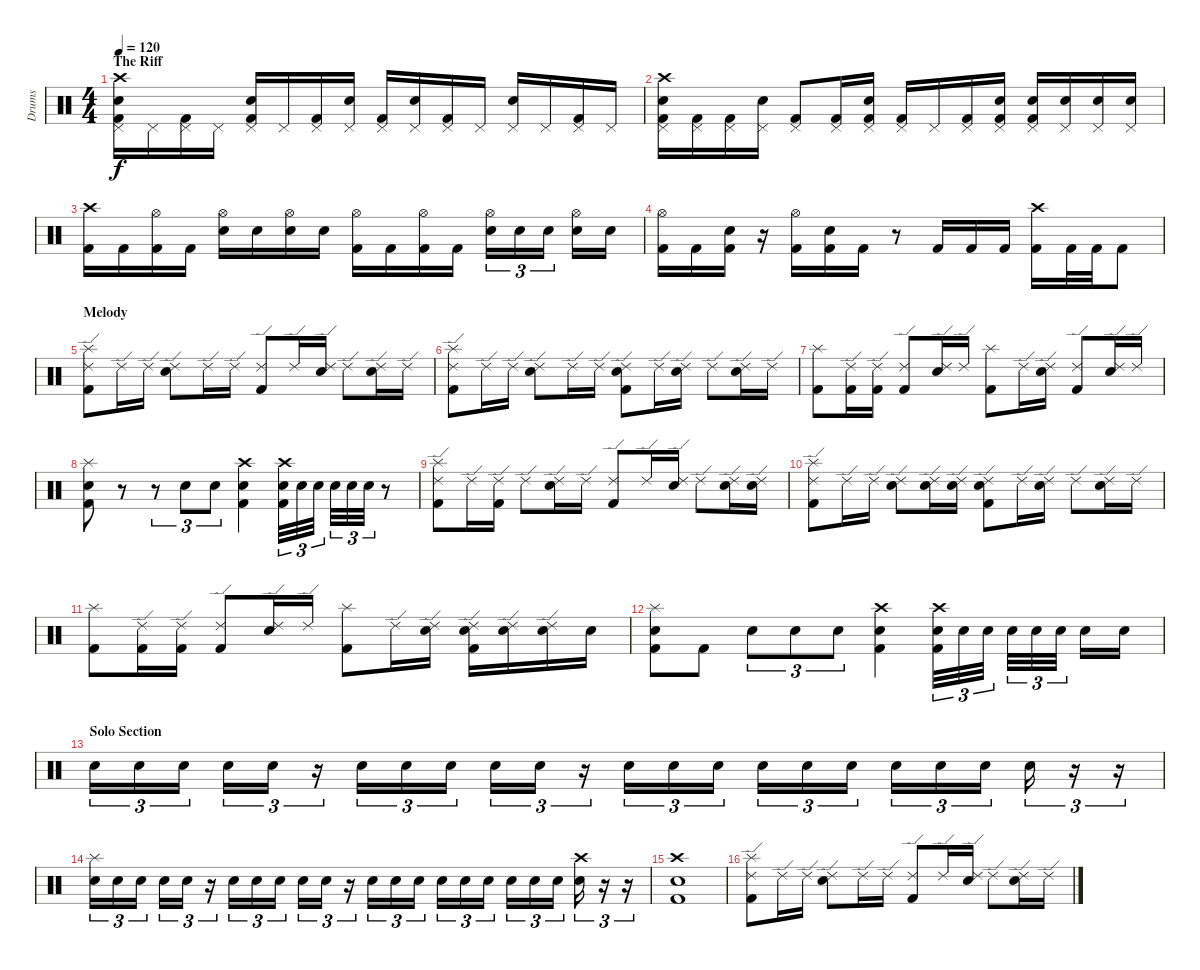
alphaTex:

\track ("Drums" "Drums") {instrument percussion}
\staff {score}
\articulation defaults
\ts (4 4)
\section ("" "The Riff")
\tempo 120
\clef neutral
\ks c
("Crash high (hit)" "Pedal Hi-Hat (hit)" "Electric Snare (hit)" "Kick (hit) 2").16{dy f} "Pedal Hi-Hat (hit)".16 ("Pedal Hi-Hat (hit)" "Kick (hit) 2").16 "Pedal Hi-Hat (hit)".16 ("Pedal Hi-Hat (hit)" "Electric Snare (hit)" "Kick (hit) 2").16 "Pedal Hi-Hat (hit)".16 ("Pedal Hi-Hat (hit)" "Kick (hit) 2").16 ("Pedal Hi-Hat (hit)" "Electric Snare (hit)").16 ("Pedal Hi-Hat (hit)" "Kick (hit) 2").16 ("Pedal Hi-Hat (hit)" "Electric Snare (hit)").16 ("Pedal Hi-Hat (hit)" "Kick (hit) 2").16 "Pedal Hi-Hat (hit)".16 ("Pedal Hi-Hat (hit)" "Electric Snare (hit)").16 "Pedal Hi-Hat (hit)".16 ("Pedal Hi-Hat (hit)" "Kick (hit) 2").16 "Pedal Hi-Hat (hit)".16 |
("Crash high (hit)" "Pedal Hi-Hat (hit)" "Electric Snare (hit)" "Kick (hit) 2").16 ("Pedal Hi-Hat (hit)" "Kick (hit) 2").16 ("Pedal Hi-Hat (hit)" "Kick (hit) 2").16 ("Pedal Hi-Hat (hit)" "Electric Snare (hit)").16 ("Pedal Hi-Hat (hit)" "Kick (hit) 2").8 ("Pedal Hi-Hat (hit)" "Kick (hit) 2").16 ("Pedal Hi-Hat (hit)" "Electric Snare (hit)" "Kick (hit) 2").16 ("Pedal Hi-Hat (hit)" "Kick (hit) 2").16 "Pedal Hi-Hat (hit)".16 ("Pedal Hi-Hat (hit)" "Kick (hit) 2").16 ("Pedal Hi-Hat (hit)" "Electric Snare (hit)" "Kick (hit) 2").16 ("Pedal Hi-Hat (hit)" "Electric Snare (hit)" "Kick (hit) 2").16 ("Pedal Hi-Hat (hit)" "Electric Snare (hit)").16 ("Pedal Hi-Hat (hit)" "Electric Snare (hit)").16 ("Pedal Hi-Hat (hit)" "Electric Snare (hit)").16 |
("Crash high (hit)" "Kick (hit) 2").16 "Kick (hit) 2".16 ("Hi-Hat (open)" "Kick (hit) 2").16 "Kick (hit) 2".16 ("Hi-Hat (open)" "Electric Snare (hit)").16 "Electric Snare (hit)".16 ("Hi-Hat (open)" "Electric Snare (hit)").16 "Electric Snare (hit)".16 ("Hi-Hat (open)" "Kick (hit) 2").16 "Kick (hit) 2".16 ("Hi-Hat (open)" "Kick (hit) 2").16 "Kick (hit) 2".16 ("Hi-Hat (open)" "Electric Snare (hit)").16{tu (3 2)} "Electric Snare (hit)".16{tu (3 2)} "Electric Snare (hit)".16{tu (3 2)} ("Hi-Hat (open)" "Electric Snare (hit)").16 "Electric Snare (hit)".16 |
("Hi-Hat (open)" "Kick (hit) 2").16 "Kick (hit) 2".16 ("Electric Snare (hit)" "Kick (hit) 2").16 r.16 ("Hi-Hat (open)" "Kick (hit) 2").16 ("Electric Snare (hit)" "Kick (hit) 2").16 "Kick (hit) 2".16 r.8 "Kick (hit) 2".16 "Kick (hit) 2".16 "Kick (hit) 2".16 ("Crash high (hit)" "Kick (hit) 2").16 "Kick (hit) 2".32 "Kick (hit) 2".32 "Kick (hit) 2".8 |
\section ("" "Melody")
("Ride (edge) 2" "Splash (hit)" "Kick (hit) 2").8 "Ride (edge) 2".16 "Ride (edge) 2".16 ("Ride (edge) 2" "Electric Snare (hit)").8 "Ride (edge) 2".16 "Ride (edge) 2".16 ("Ride (edge) 2" "Kick (hit) 2").8 "Ride (edge) 2".16 ("Ride (edge) 2" "Electric Snare (hit)").16 "Ride (edge) 2".8 ("Ride (edge) 2" "Electric Snare (hit)").16 "Ride (edge) 2".16 |
("Ride (edge) 2" "Splash (hit)" "Kick (hit) 2").8 "Ride (edge) 2".16 "Ride (edge) 2".16 ("Ride (edge) 2" "Electric Snare (hit)").8 "Ride (edge) 2".16 "Ride (edge) 2".16 ("Ride (edge) 2" "Electric Snare (hit)" "Kick (hit) 2").8 "Ride (edge) 2".16 ("Ride (edge) 2" "Electric Snare (hit)").16 "Ride (edge) 2".8 ("Ride (edge) 2" "Electric Snare (hit)").16 "Ride (edge) 2".16 |
("Splash (hit)" "Kick (hit) 2").8 ("Ride (edge) 2" "Kick (hit) 2").16 ("Ride (edge) 2" "Kick (hit) 2").16 ("Ride (edge) 2" "Kick (hit) 2").8 ("Ride (edge) 2" "Electric Snare (hit)").16 "Ride (edge) 2".16 ("Splash (hit)" "Kick (hit) 2").8 "Ride (edge) 2".16 ("Ride (edge) 2" "Electric Snare (hit)").16 ("Ride (edge) 2" "Kick (hit) 2").8 ("Ride (edge) 2" "Electric Snare (hit)").16 "Ride (edge) 2".16 |
("Splash (hit)" "Electric Snare (hit)" "Kick (hit) 2").8 r.8 r.8{tu (3 2)} "Electric Snare (hit)".8{tu (3 2)} "Electric Snare (hit)".8{tu (3 2)} ("Crash high (hit)" "Electric Snare (hit)" "Kick (hit) 2").4 ("Crash high (hit)" "Electric Snare (hit)" "Kick (hit) 2").32{tu (3 2)} "Electric Snare (hit)".32{tu (3 2)} "Electric Snare (hit)".32{tu (3 2)} "Electric Snare (hit)".32{tu (3 2)} "Electric Snare (hit)".32{tu (3 2)} "Electric Snare (hit)".32{tu (3 2)} r.8 |
("Ride (edge) 2" "Splash (hit)" "Kick (hit) 2").8 "Ride (edge) 2".16 ("Ride (edge) 2" "Kick (hit) 2").16 "Ride (edge) 2".8 ("Ride (edge) 2" "Electric Snare (hit)").16 "Ride (edge) 2".16 ("Ride (edge) 2" "Kick (hit) 2").8 "Ride (edge) 2".16 ("Ride (edge) 2" "Electric Snare (hit)").16 "Ride (edge) 2".8 ("Ride (edge) 2" "Electric Snare (hit)").16 ("Ride (edge) 2" "Electric Snare (hit)").16 |
("Ride (edge) 2" "Splash (hit)" "Kick (hit) 2").8 "Ride (edge) 2".16 "Ride (edge) 2".16 ("Ride (edge) 2" "Electric Snare (hit)").8 ("Ride (edge) 2" "Electric Snare (hit)").16 ("Ride (edge) 2" "Electric Snare (hit)").16 ("Ride (edge) 2" "Electric Snare (hit)" "Kick (hit) 2").8 "Ride (edge) 2".16 ("Ride (edge) 2" "Electric Snare (hit)").16 "Ride (edge) 2".8 ("Ride (edge) 2" "Electric Snare (hit)").16 "Ride (edge) 2".16 |
("Splash (hit)" "Kick (hit) 2").8 ("Ride (edge) 2" "Kick (hit) 2").16 ("Ride (edge) 2" "Kick (hit) 2").16 ("Ride (edge) 2" "Kick (hit) 2").8 ("Ride (edge) 2" "Electric Snare (hit)").16 "Ride (edge) 2".16 ("Splash (hit)" "Kick (hit) 2").8 "Ride (edge) 2".16 ("Ride (edge) 2" "Electric Snare (hit)").16 ("Ride (edge) 2" "Electric Snare (hit)" "Kick (hit) 2").16 ("Ride (edge) 2" "Electric Snare (hit)").16 ("Ride (edge) 2" "Electric Snare (hit)").16 "Electric Snare (hit)".16 |
("Splash (hit)" "Electric Snare (hit)" "Kick (hit) 2").8 "Kick (hit) 2".8 "Electric Snare (hit)".8{tu (3 2)} "Electric Snare (hit)".8{tu (3 2)} "Electric Snare (hit)".8{tu (3 2)} ("Crash high (hit)" "Electric Snare (hit)" "Kick (hit) 2").4 ("Crash high (hit)" "Electric Snare (hit)" "Kick (hit) 2").32{tu (3 2)} "Electric Snare (hit)".32{tu (3 2)} "Electric Snare (hit)".32{tu (3 2)} "Electric Snare (hit)".32{tu (3 2)} "Electric Snare (hit)".32{tu (3 2)} "Electric Snare (hit)".32{tu (3 2)} "Electric Snare (hit)".16 "Electric Snare (hit)".16 |
\section ("" "Solo Section")
"Electric Snare (hit)".16{tu (3 2)} "Electric Snare (hit)".16{tu (3 2)} "Electric Snare (hit)".16{tu (3 2)} "Electric Snare (hit)".16{tu (3 2)} "Electric Snare (hit)".16{tu (3 2)} r.16{tu (3 2)} "Electric Snare (hit)".16{tu (3 2)} "Electric Snare (hit)".16{tu (3 2)} "Electric Snare (hit)".16{tu (3 2)} "Electric Snare (hit)".16{tu (3 2)} "Electric Snare (hit)".16{tu (3 2)} r.16{tu (3 2)} "Electric Snare (hit)".16{tu (3 2)} "Electric Snare (hit)".16{tu (3 2)} "Electric Snare (hit)".16{tu (3 2)} "Electric Snare (hit)".16{tu (3 2)} "Electric Snare (hit)".16{tu (3 2)} "Electric Snare (hit)".16{tu (3 2)} "Electric Snare (hit)".16{tu (3 2)} "Electric Snare (hit)".16{tu (3 2)} "Electric Snare (hit)".16{tu (3 2)} "Electric Snare (hit)".16{tu (3 2)} r.16{tu (3 2)} r.16{tu (3 2)} |
("Splash (hit)" "Electric Snare (hit)").16{tu (3 2)} "Electric Snare (hit)".16{tu (3 2)} "Electric Snare (hit)".16{tu (3 2)} "Electric Snare (hit)".16{tu (3 2)} "Electric Snare (hit)".16{tu (3 2)} r.16{tu (3 2)} "Electric Snare (hit)".16{tu (3 2)} "Electric Snare (hit)".16{tu (3 2)} "Electric Snare (hit)".16{tu (3 2)} "Electric Snare (hit)".16{tu (3 2)} "Electric Snare (hit)".16{tu (3 2)} r.16{tu (3 2)} "Electric Snare (hit)".16{tu (3 2)} "Electric Snare (hit)".16{tu (3 2)} "Electric Snare (hit)".16{tu (3 2)} "Electric Snare (hit)".16{tu (3 2)} "Electric Snare (hit)".16{tu (3 2)} "Electric Snare (hit)".16{tu (3 2)} "Electric Snare (hit)".16{tu (3 2)} "Electric Snare (hit)".16{tu (3 2)} "Electric Snare (hit)".16{tu (3 2)} ("Crash high (hit)" "Electric Snare (hit)").16{tu (3 2)} r.16{tu (3 2)} r.16{tu (3 2)} |
("Crash high (hit)" "Electric Snare (hit)" "Kick (hit) 2").1 |
("Ride (edge) 2" "Splash (hit)" "Kick (hit) 2").8 "Ride (edge) 2".16 "Ride (edge) 2".16 ("Ride (edge) 2" "Electric Snare (hit)").8 "Ride (edge) 2".16 "Ride (edge) 2".16 ("Ride (edge) 2" "Kick (hit) 2").8 "Ride (edge) 2".16 ("Ride (edge) 2" "Electric Snare (hit)").16 "Ride (edge) 2".8 ("Ride (edge) 2" "Electric Snare (hit)").16 "Ride (edge) 2".16
